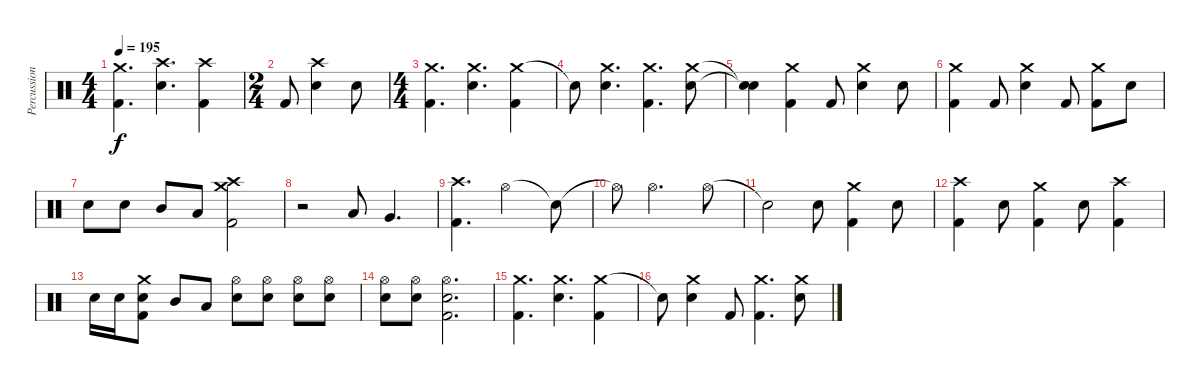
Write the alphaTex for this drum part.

\track ("Percussion" "Percussion") {instrument percussion}
\staff {score}
\articulation defaults
\ts (4 4)
\tempo 195
\clef neutral
\ks c
("Crash medium (hit)" "Kick (hit) 2").4{d dy f} ("Crash high (hit)" "Electric Snare (hit)").4{d} ("Crash high (hit)" "Kick (hit) 2").4 |
\ts (2 4)
"Kick (hit) 2".8 ("Crash high (hit)" "Electric Snare (hit)").4 "Electric Snare (hit)".8 |
\ts (4 4)
("Crash medium (hit)" "Kick (hit) 2").4{d} ("Crash medium (hit)" "Electric Snare (hit)").4{d} ("Crash medium (hit)" "Kick (hit) 2").4 |
"Snare (hit)"{t}.8 ("Crash medium (hit)" "Electric Snare (hit)").4{d} ("Crash medium (hit)" "Kick (hit) 2").4{d} ("Crash medium (hit)" "Electric Snare (hit)").8 |
("Snare (hit)"{t} "Snare (hit)"{t}).4 ("Crash medium (hit)" "Kick (hit) 2").4 "Kick (hit) 2".8 ("Crash medium (hit)" "Electric Snare (hit)").4 "Electric Snare (hit)".8 |
("Crash medium (hit)" "Kick (hit) 2").4 "Kick (hit) 2".8 ("Crash medium (hit)" "Electric Snare (hit)").4 "Kick (hit) 2".8 ("Crash medium (hit)" "Kick (hit) 2").8 "Electric Snare (hit)".8 |
"Electric Snare (hit)".8 "Electric Snare (hit)".8 "Mid Tom (hit)".8 "Low Tom (hit)".8 ("Crash high (hit)" "Crash medium (hit)" "Kick (hit) 2").2 |
r.2 "Low Tom (hit)".8 "Very Low Tom (hit)".4{d} |
("Crash high (hit)" "Kick (hit) 2").4{d} "Hi-Hat (open)".2 "Snare (hit)"{t}.8 |
"Hi-Hat (open)"{t}.8 "Hi-Hat (open)".2{d} "Hi-Hat (open)".8 |
"Snare (hit)"{t}.2 "Electric Snare (hit)".8 ("Crash medium (hit)" "Kick (hit) 2").4 "Electric Snare (hit)".8 |
("Crash high (hit)" "Kick (hit) 2").4 "Electric Snare (hit)".8 ("Crash medium (hit)" "Kick (hit) 2").4 "Electric Snare (hit)".8 ("Crash high (hit)" "Kick (hit) 2").4 |
"Electric Snare (hit)".16 "Electric Snare (hit)".16 ("Crash medium (hit)" "Electric Snare (hit)" "Kick (hit) 2").8 "Mid Tom (hit)".8 "Low Tom (hit)".8 ("Hi-Hat (open)" "Electric Snare (hit)").8 ("Hi-Hat (open)" "Electric Snare (hit)").8 ("Hi-Hat (open)" "Electric Snare (hit)").8 ("Hi-Hat (open)" "Electric Snare (hit)").8 |
("Hi-Hat (open)" "Electric Snare (hit)").8 ("Hi-Hat (open)" "Electric Snare (hit)").8 ("Hi-Hat (open)" "Electric Snare (hit)" "Kick (hit) 2").2{d} |
("Crash medium (hit)" "Kick (hit) 2").4{d} ("Crash medium (hit)" "Electric Snare (hit)").4{d} ("Crash medium (hit)" "Kick (hit) 2").4 |
"Snare (hit)"{t}.8 ("Crash medium (hit)" "Electric Snare (hit)").4 "Kick (hit) 2".8 ("Crash medium (hit)" "Kick (hit) 2").4{d} ("Crash medium (hit)" "Electric Snare (hit)").8
